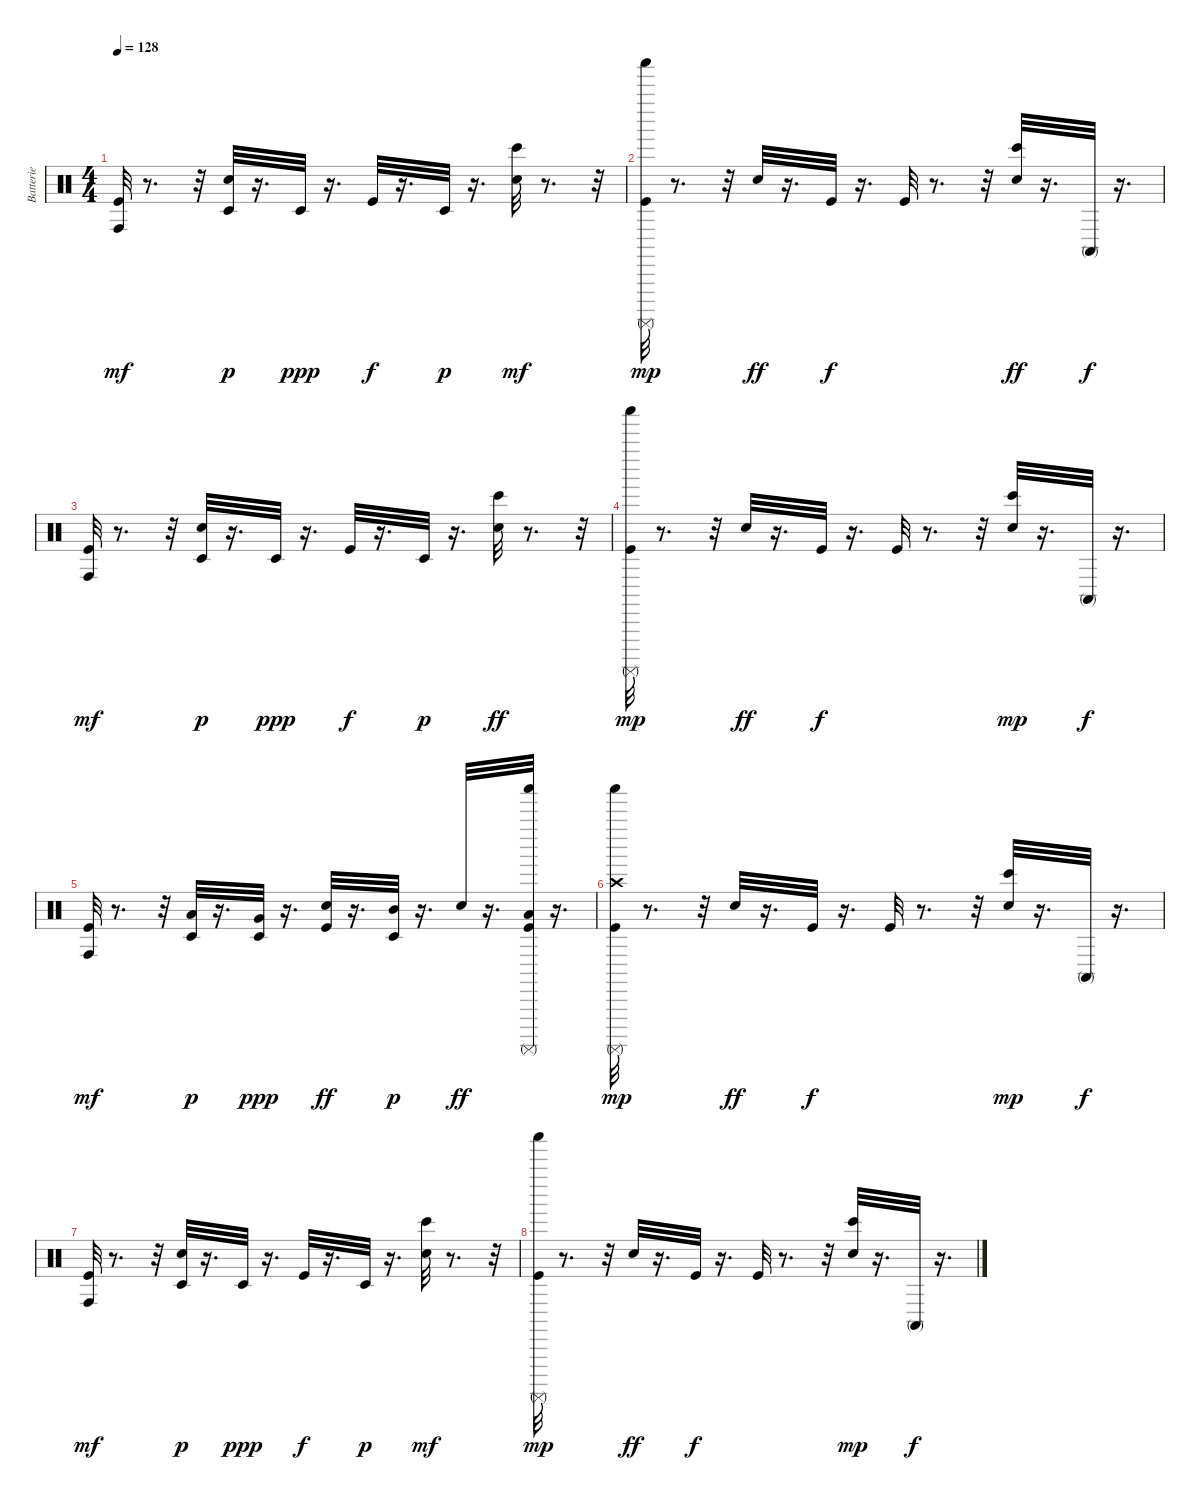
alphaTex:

\track ("Batterie" "Batterie") {instrument percussion}
\staff {score}
\articulation defaults
\ts (4 4)
\tempo 128
\clef neutral
\ks c
("Kick (hit)" "Conga high (hit)").32{dy mf} r.8{d} r.32 ("Electric Snare (hit)" "Timbale low (hit)").32{dy p} r.16{d} "Timbale low (hit)".32{dy ppp} r.16{d} "Kick (hit)".32{dy f} r.16{d} "Timbale low (hit)".32{dy p} r.16{d} ("Electric Snare (hit)" "Bongo High (hit)").32{dy mf} r.8{d} r.32 |
("Surdo (mute)" "Kick (hit)" "Shaker (hit)").32{dy mp} r.8{d} r.32 "Electric Snare (hit)".32{dy ff} r.16{d} "Kick (hit)".32{dy f} r.16{d} "Kick (hit)".32 r.8{d} r.32 ("Bongo High (hit)" "Electric Snare (hit)").32{dy ff} r.16{d} "Conga high (mute)".32{dy f} r.16{d} |
("Conga high (hit)" "Kick (hit)").32{dy mf} r.8{d} r.32 ("Electric Snare (hit)" "Timbale low (hit)").32{dy p} r.16{d} "Timbale low (hit)".32{dy ppp} r.16{d} "Kick (hit)".32{dy f} r.16{d} "Timbale low (hit)".32{dy p} r.16{d} ("Bongo High (hit)" "Electric Snare (hit)").32{dy ff} r.8{d} r.32 |
("Surdo (mute)" "Kick (hit)" "Shaker (hit)").32{dy mp} r.8{d} r.32 "Electric Snare (hit)".32{dy ff} r.16{d} "Kick (hit)".32{dy f} r.16{d} "Kick (hit)".32 r.8{d} r.32 ("Electric Snare (hit)" "Bongo High (hit)").32{dy mp} r.16{d} "Conga high (mute)".32{dy f} r.16{d} |
("Kick (hit)" "Conga high (hit)").32{dy mf} r.8{d} r.32 ("Low Tom (hit)" "Timbale low (hit)").32{dy p} r.16{d} ("Very Low Tom (hit)" "Timbale low (hit)").32{dy ppp} r.16{d} ("Electric Snare (hit)" "Kick (hit)").32{dy ff} r.16{d} ("Mid Tom (hit)" "Timbale low (hit)").32{dy p} r.16{d} "Electric Snare (hit)".32{dy ff} r.16{d} ("Kick (hit)" "Shaker (hit)" "Surdo (mute)" "Low Floor Tom (hit)").32 r.16{d} |
("Surdo (mute)" "Kick (hit)" "Crash high (hit)" "Shaker (hit)").32{dy mp} r.8{d} r.32 "Electric Snare (hit)".32{dy ff} r.16{d} "Kick (hit)".32{dy f} r.16{d} "Kick (hit)".32 r.8{d} r.32 ("Electric Snare (hit)" "Bongo High (hit)").32{dy mp} r.16{d} "Conga high (mute)".32{dy f} r.16{d} |
("Conga high (hit)" "Kick (hit)").32{dy mf} r.8{d} r.32 ("Electric Snare (hit)" "Timbale low (hit)").32{dy p} r.16{d} "Timbale low (hit)".32{dy ppp} r.16{d} "Kick (hit)".32{dy f} r.16{d} "Timbale low (hit)".32{dy p} r.16{d} ("Electric Snare (hit)" "Bongo High (hit)").32{dy mf} r.8{d} r.32 |
("Kick (hit)" "Surdo (mute)" "Shaker (hit)").32{dy mp} r.8{d} r.32 "Electric Snare (hit)".32{dy ff} r.16{d} "Kick (hit)".32{dy f} r.16{d} "Kick (hit)".32 r.8{d} r.32 ("Electric Snare (hit)" "Bongo High (hit)").32{dy mp} r.16{d} "Conga high (mute)".32{dy f} r.16{d}
